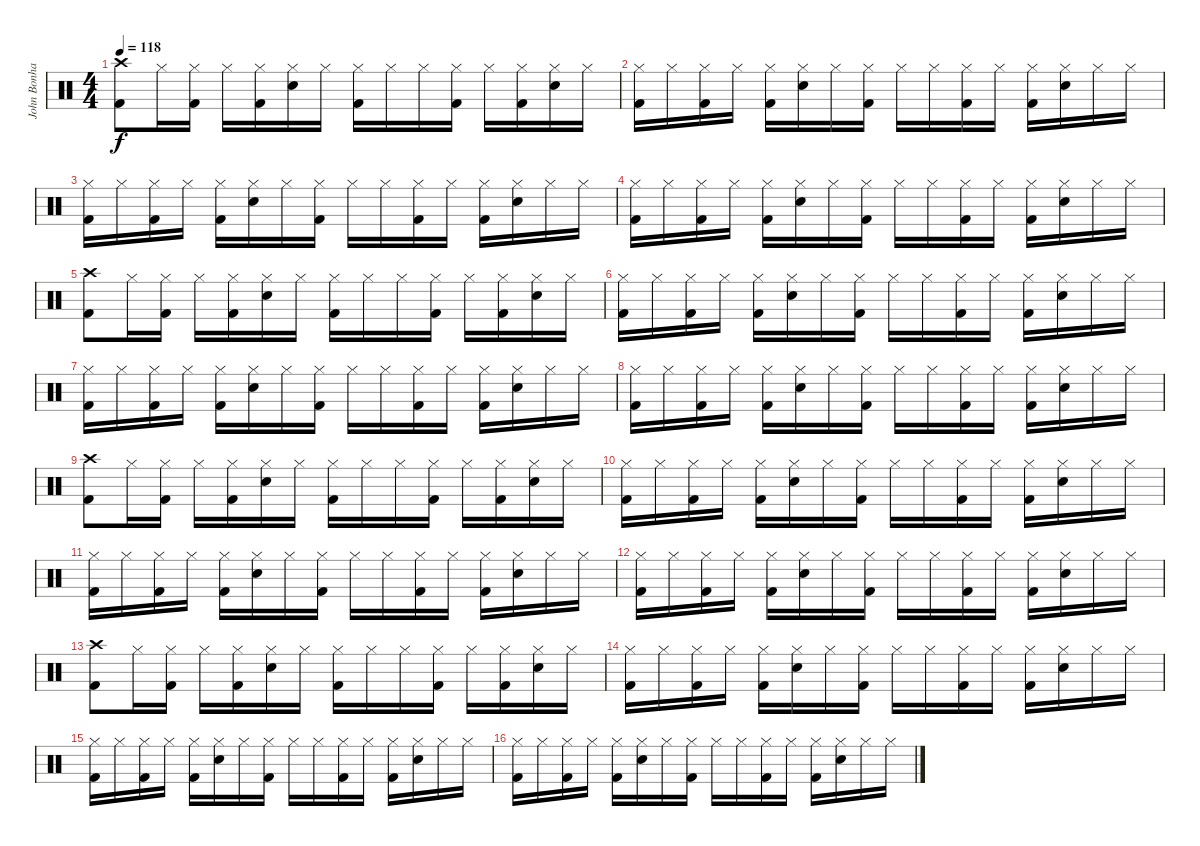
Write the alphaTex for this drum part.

\track ("John Bonham (Bateria)" "John Bonha") {instrument percussion}
\staff {score}
\articulation defaults
\ts (4 4)
\tempo 118
\clef neutral
\ks c
("Crash high (hit)" "Kick (hit) 2").8{dy f volume 10} "Hi-Hat (closed)".16 ("Kick (hit) 2" "Hi-Hat (closed)").16 "Hi-Hat (closed)".16 ("Kick (hit) 2" "Hi-Hat (closed)").16 ("Snare (hit) 2" "Hi-Hat (closed)").16 "Hi-Hat (closed)".16 ("Kick (hit) 2" "Hi-Hat (closed)").16 "Hi-Hat (closed)".16 "Hi-Hat (closed)".16 ("Kick (hit) 2" "Hi-Hat (closed)").16 "Hi-Hat (closed)".16 ("Kick (hit) 2" "Hi-Hat (closed)").16 ("Snare (hit) 2" "Hi-Hat (closed)").16 "Hi-Hat (closed)".16 |
("Kick (hit) 2" "Hi-Hat (closed)").16 "Hi-Hat (closed)".16 ("Kick (hit) 2" "Hi-Hat (closed)").16 "Hi-Hat (closed)".16 ("Kick (hit) 2" "Hi-Hat (closed)").16 ("Snare (hit) 2" "Hi-Hat (closed)").16 "Hi-Hat (closed)".16 ("Kick (hit) 2" "Hi-Hat (closed)").16 "Hi-Hat (closed)".16 "Hi-Hat (closed)".16 ("Kick (hit) 2" "Hi-Hat (closed)").16 "Hi-Hat (closed)".16 ("Kick (hit) 2" "Hi-Hat (closed)").16 ("Snare (hit) 2" "Hi-Hat (closed)").16 "Hi-Hat (closed)".16 "Hi-Hat (closed)".16 |
("Kick (hit) 2" "Hi-Hat (closed)").16 "Hi-Hat (closed)".16 ("Kick (hit) 2" "Hi-Hat (closed)").16 "Hi-Hat (closed)".16 ("Kick (hit) 2" "Hi-Hat (closed)").16 ("Snare (hit) 2" "Hi-Hat (closed)").16 "Hi-Hat (closed)".16 ("Kick (hit) 2" "Hi-Hat (closed)").16 "Hi-Hat (closed)".16 "Hi-Hat (closed)".16 ("Kick (hit) 2" "Hi-Hat (closed)").16 "Hi-Hat (closed)".16 ("Kick (hit) 2" "Hi-Hat (closed)").16 ("Snare (hit) 2" "Hi-Hat (closed)").16 "Hi-Hat (closed)".16 "Hi-Hat (closed)".16 |
("Kick (hit) 2" "Hi-Hat (closed)").16 "Hi-Hat (closed)".16 ("Kick (hit) 2" "Hi-Hat (closed)").16 "Hi-Hat (closed)".16 ("Kick (hit) 2" "Hi-Hat (closed)").16 ("Snare (hit) 2" "Hi-Hat (closed)").16 "Hi-Hat (closed)".16 ("Kick (hit) 2" "Hi-Hat (closed)").16 "Hi-Hat (closed)".16 "Hi-Hat (closed)".16 ("Kick (hit) 2" "Hi-Hat (closed)").16 "Hi-Hat (closed)".16 ("Kick (hit) 2" "Hi-Hat (closed)").16 ("Snare (hit) 2" "Hi-Hat (closed)").16 "Hi-Hat (closed)".16 "Hi-Hat (closed)".16 |
("Crash high (hit)" "Kick (hit) 2").8 "Hi-Hat (closed)".16 ("Kick (hit) 2" "Hi-Hat (closed)").16 "Hi-Hat (closed)".16 ("Kick (hit) 2" "Hi-Hat (closed)").16 ("Snare (hit) 2" "Hi-Hat (closed)").16 "Hi-Hat (closed)".16 ("Kick (hit) 2" "Hi-Hat (closed)").16 "Hi-Hat (closed)".16 "Hi-Hat (closed)".16 ("Kick (hit) 2" "Hi-Hat (closed)").16 "Hi-Hat (closed)".16 ("Kick (hit) 2" "Hi-Hat (closed)").16 ("Snare (hit) 2" "Hi-Hat (closed)").16 "Hi-Hat (closed)".16 |
("Kick (hit) 2" "Hi-Hat (closed)").16 "Hi-Hat (closed)".16 ("Kick (hit) 2" "Hi-Hat (closed)").16 "Hi-Hat (closed)".16 ("Kick (hit) 2" "Hi-Hat (closed)").16 ("Snare (hit) 2" "Hi-Hat (closed)").16 "Hi-Hat (closed)".16 ("Kick (hit) 2" "Hi-Hat (closed)").16 "Hi-Hat (closed)".16 "Hi-Hat (closed)".16 ("Kick (hit) 2" "Hi-Hat (closed)").16 "Hi-Hat (closed)".16 ("Kick (hit) 2" "Hi-Hat (closed)").16 ("Snare (hit) 2" "Hi-Hat (closed)").16 "Hi-Hat (closed)".16 "Hi-Hat (closed)".16 |
("Kick (hit) 2" "Hi-Hat (closed)").16 "Hi-Hat (closed)".16 ("Kick (hit) 2" "Hi-Hat (closed)").16 "Hi-Hat (closed)".16 ("Kick (hit) 2" "Hi-Hat (closed)").16 ("Snare (hit) 2" "Hi-Hat (closed)").16 "Hi-Hat (closed)".16 ("Kick (hit) 2" "Hi-Hat (closed)").16 "Hi-Hat (closed)".16 "Hi-Hat (closed)".16 ("Kick (hit) 2" "Hi-Hat (closed)").16 "Hi-Hat (closed)".16 ("Kick (hit) 2" "Hi-Hat (closed)").16 ("Snare (hit) 2" "Hi-Hat (closed)").16 "Hi-Hat (closed)".16 "Hi-Hat (closed)".16 |
("Kick (hit) 2" "Hi-Hat (closed)").16 "Hi-Hat (closed)".16 ("Kick (hit) 2" "Hi-Hat (closed)").16 "Hi-Hat (closed)".16 ("Kick (hit) 2" "Hi-Hat (closed)").16 ("Snare (hit) 2" "Hi-Hat (closed)").16 "Hi-Hat (closed)".16 ("Kick (hit) 2" "Hi-Hat (closed)").16 "Hi-Hat (closed)".16 "Hi-Hat (closed)".16 ("Kick (hit) 2" "Hi-Hat (closed)").16 "Hi-Hat (closed)".16 ("Kick (hit) 2" "Hi-Hat (closed)").16 ("Snare (hit) 2" "Hi-Hat (closed)").16 "Hi-Hat (closed)".16 "Hi-Hat (closed)".16 |
("Crash high (hit)" "Kick (hit) 2").8 "Hi-Hat (closed)".16 ("Kick (hit) 2" "Hi-Hat (closed)").16 "Hi-Hat (closed)".16 ("Kick (hit) 2" "Hi-Hat (closed)").16 ("Snare (hit) 2" "Hi-Hat (closed)").16 "Hi-Hat (closed)".16 ("Kick (hit) 2" "Hi-Hat (closed)").16 "Hi-Hat (closed)".16 "Hi-Hat (closed)".16 ("Kick (hit) 2" "Hi-Hat (closed)").16 "Hi-Hat (closed)".16 ("Kick (hit) 2" "Hi-Hat (closed)").16 ("Snare (hit) 2" "Hi-Hat (closed)").16 "Hi-Hat (closed)".16 |
("Kick (hit) 2" "Hi-Hat (closed)").16 "Hi-Hat (closed)".16 ("Kick (hit) 2" "Hi-Hat (closed)").16 "Hi-Hat (closed)".16 ("Kick (hit) 2" "Hi-Hat (closed)").16 ("Snare (hit) 2" "Hi-Hat (closed)").16 "Hi-Hat (closed)".16 ("Kick (hit) 2" "Hi-Hat (closed)").16 "Hi-Hat (closed)".16 "Hi-Hat (closed)".16 ("Kick (hit) 2" "Hi-Hat (closed)").16 "Hi-Hat (closed)".16 ("Kick (hit) 2" "Hi-Hat (closed)").16 ("Snare (hit) 2" "Hi-Hat (closed)").16 "Hi-Hat (closed)".16 "Hi-Hat (closed)".16 |
("Kick (hit) 2" "Hi-Hat (closed)").16 "Hi-Hat (closed)".16 ("Kick (hit) 2" "Hi-Hat (closed)").16 "Hi-Hat (closed)".16 ("Kick (hit) 2" "Hi-Hat (closed)").16 ("Snare (hit) 2" "Hi-Hat (closed)").16 "Hi-Hat (closed)".16 ("Kick (hit) 2" "Hi-Hat (closed)").16 "Hi-Hat (closed)".16 "Hi-Hat (closed)".16 ("Kick (hit) 2" "Hi-Hat (closed)").16 "Hi-Hat (closed)".16 ("Kick (hit) 2" "Hi-Hat (closed)").16 ("Snare (hit) 2" "Hi-Hat (closed)").16 "Hi-Hat (closed)".16 "Hi-Hat (closed)".16 |
("Kick (hit) 2" "Hi-Hat (closed)").16 "Hi-Hat (closed)".16 ("Kick (hit) 2" "Hi-Hat (closed)").16 "Hi-Hat (closed)".16 ("Kick (hit) 2" "Hi-Hat (closed)").16 ("Snare (hit) 2" "Hi-Hat (closed)").16 "Hi-Hat (closed)".16 ("Kick (hit) 2" "Hi-Hat (closed)").16 "Hi-Hat (closed)".16 "Hi-Hat (closed)".16 ("Kick (hit) 2" "Hi-Hat (closed)").16 "Hi-Hat (closed)".16 ("Kick (hit) 2" "Hi-Hat (closed)").16 ("Snare (hit) 2" "Hi-Hat (closed)").16 "Hi-Hat (closed)".16 "Hi-Hat (closed)".16 |
("Crash high (hit)" "Kick (hit) 2").8 "Hi-Hat (closed)".16 ("Kick (hit) 2" "Hi-Hat (closed)").16 "Hi-Hat (closed)".16 ("Kick (hit) 2" "Hi-Hat (closed)").16 ("Snare (hit) 2" "Hi-Hat (closed)").16 "Hi-Hat (closed)".16 ("Kick (hit) 2" "Hi-Hat (closed)").16 "Hi-Hat (closed)".16 "Hi-Hat (closed)".16 ("Kick (hit) 2" "Hi-Hat (closed)").16 "Hi-Hat (closed)".16 ("Kick (hit) 2" "Hi-Hat (closed)").16 ("Snare (hit) 2" "Hi-Hat (closed)").16 "Hi-Hat (closed)".16 |
("Kick (hit) 2" "Hi-Hat (closed)").16 "Hi-Hat (closed)".16 ("Kick (hit) 2" "Hi-Hat (closed)").16 "Hi-Hat (closed)".16 ("Kick (hit) 2" "Hi-Hat (closed)").16 ("Snare (hit) 2" "Hi-Hat (closed)").16 "Hi-Hat (closed)".16 ("Kick (hit) 2" "Hi-Hat (closed)").16 "Hi-Hat (closed)".16 "Hi-Hat (closed)".16 ("Kick (hit) 2" "Hi-Hat (closed)").16 "Hi-Hat (closed)".16 ("Kick (hit) 2" "Hi-Hat (closed)").16 ("Snare (hit) 2" "Hi-Hat (closed)").16 "Hi-Hat (closed)".16 "Hi-Hat (closed)".16 |
("Kick (hit) 2" "Hi-Hat (closed)").16 "Hi-Hat (closed)".16 ("Kick (hit) 2" "Hi-Hat (closed)").16 "Hi-Hat (closed)".16 ("Kick (hit) 2" "Hi-Hat (closed)").16 ("Snare (hit) 2" "Hi-Hat (closed)").16 "Hi-Hat (closed)".16 ("Kick (hit) 2" "Hi-Hat (closed)").16 "Hi-Hat (closed)".16 "Hi-Hat (closed)".16 ("Kick (hit) 2" "Hi-Hat (closed)").16 "Hi-Hat (closed)".16 ("Kick (hit) 2" "Hi-Hat (closed)").16 ("Snare (hit) 2" "Hi-Hat (closed)").16 "Hi-Hat (closed)".16 "Hi-Hat (closed)".16 |
("Kick (hit) 2" "Hi-Hat (closed)").16 "Hi-Hat (closed)".16 ("Kick (hit) 2" "Hi-Hat (closed)").16 "Hi-Hat (closed)".16 ("Kick (hit) 2" "Hi-Hat (closed)").16 ("Snare (hit) 2" "Hi-Hat (closed)").16 "Hi-Hat (closed)".16 ("Kick (hit) 2" "Hi-Hat (closed)").16 "Hi-Hat (closed)".16 "Hi-Hat (closed)".16 ("Kick (hit) 2" "Hi-Hat (closed)").16 "Hi-Hat (closed)".16 ("Kick (hit) 2" "Hi-Hat (closed)").16 ("Snare (hit) 2" "Hi-Hat (closed)").16 "Hi-Hat (closed)".16 "Hi-Hat (closed)".16
